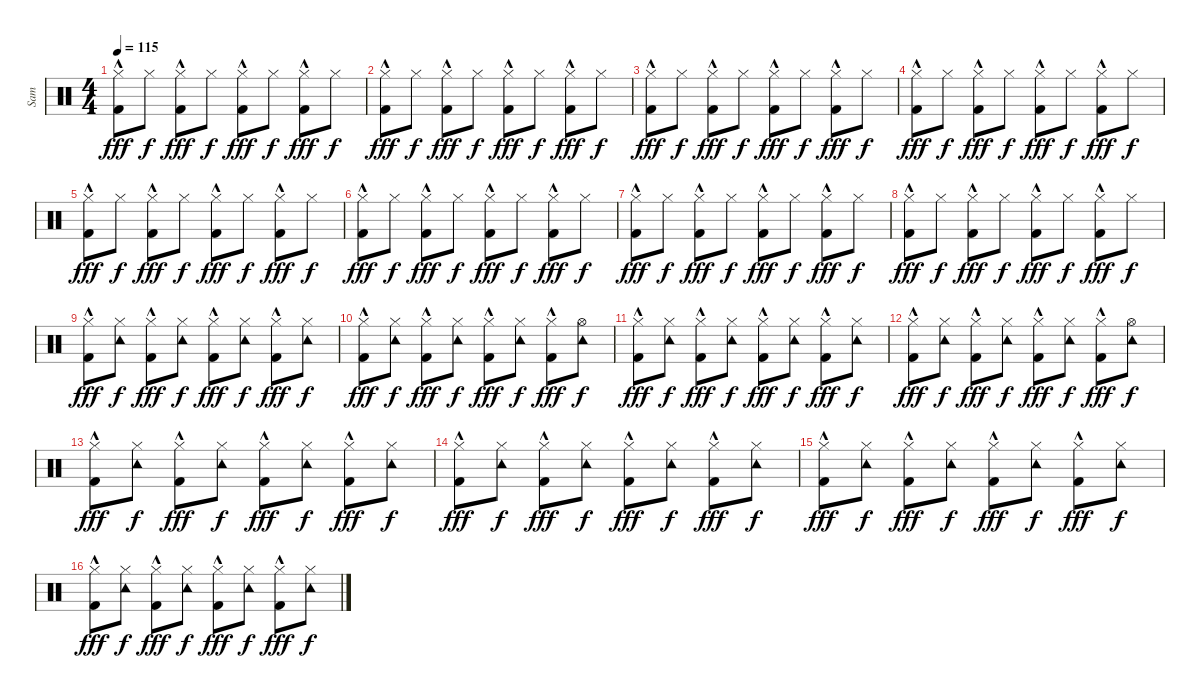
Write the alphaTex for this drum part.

\track ("Sam" "Sam") {instrument percussion}
\staff {score}
\articulation defaults
\ts (4 4)
\tempo 115
\clef neutral
\ks c
("Hi-Hat (closed)" "Kick (hit) 2"{hac}).8{dy fff} "Hi-Hat (closed)".8{dy f} ("Hi-Hat (closed)" "Kick (hit) 2"{hac}).8{dy fff} "Hi-Hat (closed)".8{dy f} ("Hi-Hat (closed)" "Kick (hit) 2"{hac}).8{dy fff} "Hi-Hat (closed)".8{dy f} ("Hi-Hat (closed)" "Kick (hit) 2"{hac}).8{dy fff} "Hi-Hat (closed)".8{dy f} |
("Hi-Hat (closed)" "Kick (hit) 2"{hac}).8{dy fff} "Hi-Hat (closed)".8{dy f} ("Hi-Hat (closed)" "Kick (hit) 2"{hac}).8{dy fff} "Hi-Hat (closed)".8{dy f} ("Hi-Hat (closed)" "Kick (hit) 2"{hac}).8{dy fff} "Hi-Hat (closed)".8{dy f} ("Hi-Hat (closed)" "Kick (hit) 2"{hac}).8{dy fff} "Hi-Hat (closed)".8{dy f} |
("Hi-Hat (closed)" "Kick (hit) 2"{hac}).8{dy fff} "Hi-Hat (closed)".8{dy f} ("Hi-Hat (closed)" "Kick (hit) 2"{hac}).8{dy fff} "Hi-Hat (closed)".8{dy f} ("Hi-Hat (closed)" "Kick (hit) 2"{hac}).8{dy fff} "Hi-Hat (closed)".8{dy f} ("Hi-Hat (closed)" "Kick (hit) 2"{hac}).8{dy fff} "Hi-Hat (closed)".8{dy f} |
("Hi-Hat (closed)" "Kick (hit) 2"{hac}).8{dy fff} "Hi-Hat (closed)".8{dy f} ("Hi-Hat (closed)" "Kick (hit) 2"{hac}).8{dy fff} "Hi-Hat (closed)".8{dy f} ("Hi-Hat (closed)" "Kick (hit) 2"{hac}).8{dy fff} "Hi-Hat (closed)".8{dy f} ("Hi-Hat (closed)" "Kick (hit) 2"{hac}).8{dy fff} "Hi-Hat (closed)".8{dy f} |
("Hi-Hat (closed)" "Kick (hit) 2"{hac}).8{dy fff} "Hi-Hat (closed)".8{dy f} ("Hi-Hat (closed)" "Kick (hit) 2"{hac}).8{dy fff} "Hi-Hat (closed)".8{dy f} ("Hi-Hat (closed)" "Kick (hit) 2"{hac}).8{dy fff} "Hi-Hat (closed)".8{dy f} ("Hi-Hat (closed)" "Kick (hit) 2"{hac}).8{dy fff} "Hi-Hat (closed)".8{dy f} |
("Hi-Hat (closed)" "Kick (hit) 2"{hac}).8{dy fff} "Hi-Hat (closed)".8{dy f} ("Hi-Hat (closed)" "Kick (hit) 2"{hac}).8{dy fff} "Hi-Hat (closed)".8{dy f} ("Hi-Hat (closed)" "Kick (hit) 2"{hac}).8{dy fff} "Hi-Hat (closed)".8{dy f} ("Hi-Hat (closed)" "Kick (hit) 2"{hac}).8{dy fff} "Hi-Hat (closed)".8{dy f} |
("Hi-Hat (closed)" "Kick (hit) 2"{hac}).8{dy fff} "Hi-Hat (closed)".8{dy f} ("Hi-Hat (closed)" "Kick (hit) 2"{hac}).8{dy fff} "Hi-Hat (closed)".8{dy f} ("Hi-Hat (closed)" "Kick (hit) 2"{hac}).8{dy fff} "Hi-Hat (closed)".8{dy f} ("Hi-Hat (closed)" "Kick (hit) 2"{hac}).8{dy fff} "Hi-Hat (closed)".8{dy f} |
("Hi-Hat (closed)" "Kick (hit) 2"{hac}).8{dy fff} "Hi-Hat (closed)".8{dy f} ("Hi-Hat (closed)" "Kick (hit) 2"{hac}).8{dy fff} "Hi-Hat (closed)".8{dy f} ("Hi-Hat (closed)" "Kick (hit) 2"{hac}).8{dy fff} "Hi-Hat (closed)".8{dy f} ("Hi-Hat (closed)" "Kick (hit) 2"{hac}).8{dy fff} "Hi-Hat (closed)".8{dy f} |
("Hi-Hat (closed)" "Kick (hit) 2"{hac}).8{dy fff} ("Tambourine (hit)" "Hi-Hat (closed)").8{dy f} ("Hi-Hat (closed)" "Kick (hit) 2"{hac}).8{dy fff} ("Tambourine (hit)" "Hi-Hat (closed)").8{dy f} ("Hi-Hat (closed)" "Kick (hit) 2"{hac}).8{dy fff} ("Tambourine (hit)" "Hi-Hat (closed)").8{dy f} ("Hi-Hat (closed)" "Kick (hit) 2"{hac}).8{dy fff} ("Tambourine (hit)" "Hi-Hat (closed)").8{dy f} |
("Hi-Hat (closed)" "Kick (hit) 2"{hac}).8{dy fff} ("Tambourine (hit)" "Hi-Hat (closed)").8{dy f} ("Hi-Hat (closed)" "Kick (hit) 2"{hac}).8{dy fff} ("Tambourine (hit)" "Hi-Hat (closed)").8{dy f} ("Hi-Hat (closed)" "Kick (hit) 2"{hac}).8{dy fff} ("Tambourine (hit)" "Hi-Hat (closed)").8{dy f} ("Hi-Hat (closed)" "Kick (hit) 2"{hac}).8{dy fff} ("Tambourine (hit)" "Hi-Hat (open)").8{dy f} |
("Hi-Hat (closed)" "Kick (hit) 2"{hac}).8{dy fff} ("Tambourine (hit)" "Hi-Hat (closed)").8{dy f} ("Hi-Hat (closed)" "Kick (hit) 2"{hac}).8{dy fff} ("Tambourine (hit)" "Hi-Hat (closed)").8{dy f} ("Hi-Hat (closed)" "Kick (hit) 2"{hac}).8{dy fff} ("Tambourine (hit)" "Hi-Hat (closed)").8{dy f} ("Hi-Hat (closed)" "Kick (hit) 2"{hac}).8{dy fff} ("Tambourine (hit)" "Hi-Hat (closed)").8{dy f} |
("Hi-Hat (closed)" "Kick (hit) 2"{hac}).8{dy fff} ("Tambourine (hit)" "Hi-Hat (closed)").8{dy f} ("Hi-Hat (closed)" "Kick (hit) 2"{hac}).8{dy fff} ("Tambourine (hit)" "Hi-Hat (closed)").8{dy f} ("Hi-Hat (closed)" "Kick (hit) 2"{hac}).8{dy fff} ("Tambourine (hit)" "Hi-Hat (closed)").8{dy f} ("Hi-Hat (closed)" "Kick (hit) 2"{hac}).8{dy fff} ("Tambourine (hit)" "Hi-Hat (open)").8{dy f} |
("Hi-Hat (closed)" "Kick (hit) 2"{hac}).8{dy fff} ("Tambourine (hit)" "Hi-Hat (closed)").8{dy f} ("Hi-Hat (closed)" "Kick (hit) 2"{hac}).8{dy fff} ("Tambourine (hit)" "Hi-Hat (closed)").8{dy f} ("Hi-Hat (closed)" "Kick (hit) 2"{hac}).8{dy fff} ("Tambourine (hit)" "Hi-Hat (closed)").8{dy f} ("Hi-Hat (closed)" "Kick (hit) 2"{hac}).8{dy fff} ("Tambourine (hit)" "Hi-Hat (closed)").8{dy f} |
("Hi-Hat (closed)" "Kick (hit) 2"{hac}).8{dy fff} ("Tambourine (hit)" "Hi-Hat (closed)").8{dy f} ("Hi-Hat (closed)" "Kick (hit) 2"{hac}).8{dy fff} ("Tambourine (hit)" "Hi-Hat (closed)").8{dy f} ("Hi-Hat (closed)" "Kick (hit) 2"{hac}).8{dy fff} ("Tambourine (hit)" "Hi-Hat (closed)").8{dy f} ("Hi-Hat (closed)" "Kick (hit) 2"{hac}).8{dy fff} ("Tambourine (hit)" "Hi-Hat (closed)").8{dy f} |
("Hi-Hat (closed)" "Kick (hit) 2"{hac}).8{dy fff} ("Tambourine (hit)" "Hi-Hat (closed)").8{dy f} ("Hi-Hat (closed)" "Kick (hit) 2"{hac}).8{dy fff} ("Tambourine (hit)" "Hi-Hat (closed)").8{dy f} ("Hi-Hat (closed)" "Kick (hit) 2"{hac}).8{dy fff} ("Tambourine (hit)" "Hi-Hat (closed)").8{dy f} ("Hi-Hat (closed)" "Kick (hit) 2"{hac}).8{dy fff} ("Tambourine (hit)" "Hi-Hat (closed)").8{dy f} |
("Hi-Hat (closed)" "Kick (hit) 2"{hac}).8{dy fff} ("Tambourine (hit)" "Hi-Hat (closed)").8{dy f} ("Hi-Hat (closed)" "Kick (hit) 2"{hac}).8{dy fff} ("Tambourine (hit)" "Hi-Hat (closed)").8{dy f} ("Hi-Hat (closed)" "Kick (hit) 2"{hac}).8{dy fff} ("Tambourine (hit)" "Hi-Hat (closed)").8{dy f} ("Hi-Hat (closed)" "Kick (hit) 2"{hac}).8{dy fff} ("Tambourine (hit)" "Hi-Hat (closed)").8{dy f}
